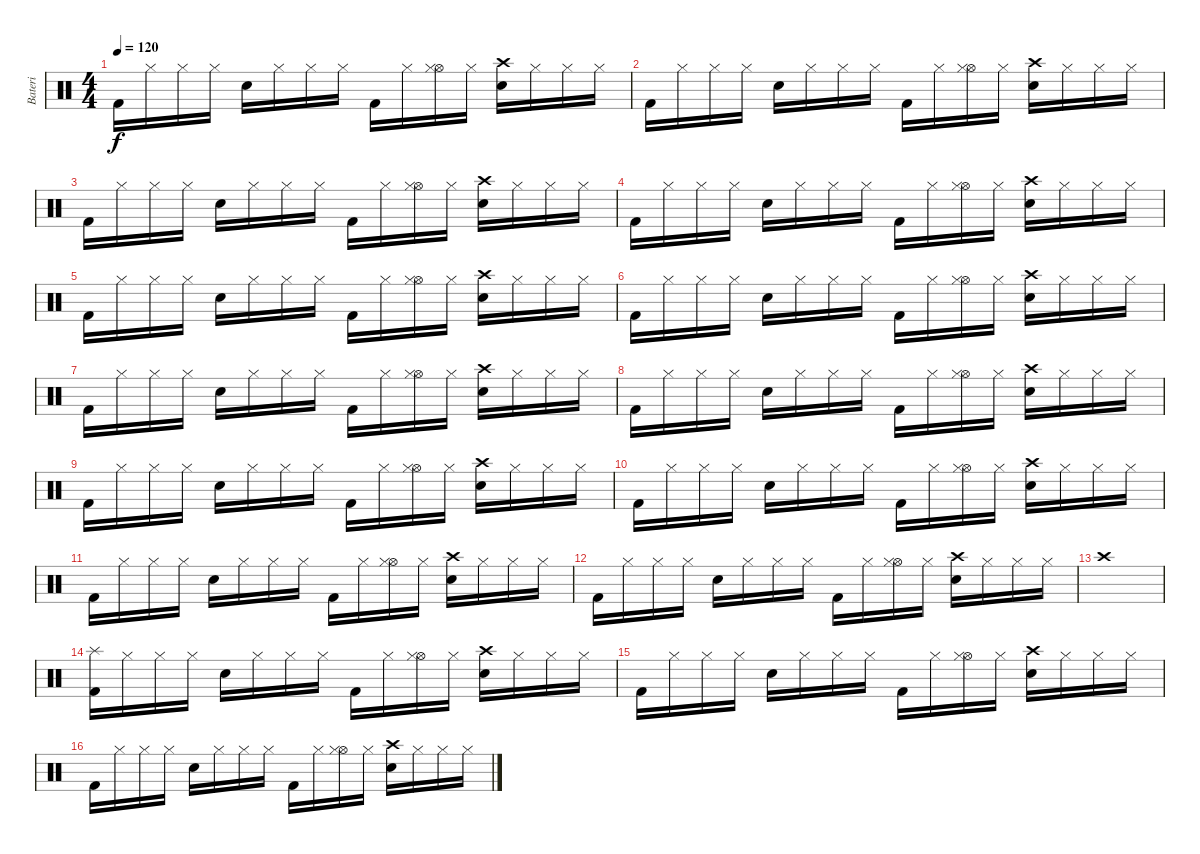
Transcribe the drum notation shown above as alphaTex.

\track ("Bateri" "Bateri") {instrument percussion}
\staff {score}
\articulation defaults
\ts (4 4)
\tempo 120
\clef neutral
\ks c "Kick (hit) 2".16{dy f} "Hi-Hat (closed)".16 "Hi-Hat (closed)".16 "Hi-Hat (closed)".16 "Electric Snare (hit)".16 "Hi-Hat (closed)".16 "Hi-Hat (closed)".16 "Hi-Hat (closed)".16 "Kick (hit) 2".16 "Hi-Hat (closed)".16
("Hi-Hat (open)" "Hi-Hat (closed)").16 "Hi-Hat (closed)".16 ("Crash high (hit)" "Electric Snare (hit)").16 "Hi-Hat (closed)".16 "Hi-Hat (closed)".16 "Hi-Hat (closed)".16 |
"Kick (hit) 2".16 "Hi-Hat (closed)".16 "Hi-Hat (closed)".16 "Hi-Hat (closed)".16 "Electric Snare (hit)".16 "Hi-Hat (closed)".16 "Hi-Hat (closed)".16 "Hi-Hat (closed)".16 "Kick (hit) 2".16 "Hi-Hat (closed)".16 ("Hi-Hat (open)" "Hi-Hat (closed)").16 "Hi-Hat (closed)".16 ("Crash high (hit)" "Electric Snare (hit)").16 "Hi-Hat (closed)".16 "Hi-Hat (closed)".16 "Hi-Hat (closed)".16 |
"Kick (hit) 2".16 "Hi-Hat (closed)".16 "Hi-Hat (closed)".16 "Hi-Hat (closed)".16 "Electric Snare (hit)".16 "Hi-Hat (closed)".16 "Hi-Hat (closed)".16 "Hi-Hat (closed)".16 "Kick (hit) 2".16 "Hi-Hat (closed)".16 ("Hi-Hat (open)" "Hi-Hat (closed)").16 "Hi-Hat (closed)".16 ("Crash high (hit)" "Electric Snare (hit)").16 "Hi-Hat (closed)".16 "Hi-Hat (closed)".16 "Hi-Hat (closed)".16 |
"Kick (hit) 2".16 "Hi-Hat (closed)".16 "Hi-Hat (closed)".16 "Hi-Hat (closed)".16 "Electric Snare (hit)".16 "Hi-Hat (closed)".16 "Hi-Hat (closed)".16 "Hi-Hat (closed)".16 "Kick (hit) 2".16 "Hi-Hat (closed)".16 ("Hi-Hat (open)" "Hi-Hat (closed)").16 "Hi-Hat (closed)".16 ("Crash high (hit)" "Electric Snare (hit)").16 "Hi-Hat (closed)".16 "Hi-Hat (closed)".16 "Hi-Hat (closed)".16 |
"Kick (hit) 2".16 "Hi-Hat (closed)".16 "Hi-Hat (closed)".16 "Hi-Hat (closed)".16 "Electric Snare (hit)".16 "Hi-Hat (closed)".16 "Hi-Hat (closed)".16 "Hi-Hat (closed)".16 "Kick (hit) 2".16 "Hi-Hat (closed)".16 ("Hi-Hat (open)" "Hi-Hat (closed)").16 "Hi-Hat (closed)".16 ("Crash high (hit)" "Electric Snare (hit)").16 "Hi-Hat (closed)".16 "Hi-Hat (closed)".16 "Hi-Hat (closed)".16 |
"Kick (hit) 2".16 "Hi-Hat (closed)".16 "Hi-Hat (closed)".16 "Hi-Hat (closed)".16 "Electric Snare (hit)".16 "Hi-Hat (closed)".16 "Hi-Hat (closed)".16 "Hi-Hat (closed)".16 "Kick (hit) 2".16 "Hi-Hat (closed)".16 ("Hi-Hat (open)" "Hi-Hat (closed)").16 "Hi-Hat (closed)".16 ("Crash high (hit)" "Electric Snare (hit)").16 "Hi-Hat (closed)".16 "Hi-Hat (closed)".16 "Hi-Hat (closed)".16 |
"Kick (hit) 2".16 "Hi-Hat (closed)".16 "Hi-Hat (closed)".16 "Hi-Hat (closed)".16 "Electric Snare (hit)".16 "Hi-Hat (closed)".16 "Hi-Hat (closed)".16 "Hi-Hat (closed)".16 "Kick (hit) 2".16 "Hi-Hat (closed)".16 ("Hi-Hat (open)" "Hi-Hat (closed)").16 "Hi-Hat (closed)".16 ("Crash high (hit)" "Electric Snare (hit)").16 "Hi-Hat (closed)".16 "Hi-Hat (closed)".16 "Hi-Hat (closed)".16 |
"Kick (hit) 2".16 "Hi-Hat (closed)".16 "Hi-Hat (closed)".16 "Hi-Hat (closed)".16 "Electric Snare (hit)".16 "Hi-Hat (closed)".16 "Hi-Hat (closed)".16 "Hi-Hat (closed)".16 "Kick (hit) 2".16 "Hi-Hat (closed)".16 ("Hi-Hat (open)" "Hi-Hat (closed)").16 "Hi-Hat (closed)".16 ("Crash high (hit)" "Electric Snare (hit)").16 "Hi-Hat (closed)".16 "Hi-Hat (closed)".16 "Hi-Hat (closed)".16 |
"Kick (hit) 2".16 "Hi-Hat (closed)".16 "Hi-Hat (closed)".16 "Hi-Hat (closed)".16 "Electric Snare (hit)".16 "Hi-Hat (closed)".16 "Hi-Hat (closed)".16 "Hi-Hat (closed)".16 "Kick (hit) 2".16 "Hi-Hat (closed)".16 ("Hi-Hat (open)" "Hi-Hat (closed)").16 "Hi-Hat (closed)".16 ("Crash high (hit)" "Electric Snare (hit)").16 "Hi-Hat (closed)".16 "Hi-Hat (closed)".16 "Hi-Hat (closed)".16 |
"Kick (hit) 2".16 "Hi-Hat (closed)".16 "Hi-Hat (closed)".16 "Hi-Hat (closed)".16 "Electric Snare (hit)".16 "Hi-Hat (closed)".16 "Hi-Hat (closed)".16 "Hi-Hat (closed)".16 "Kick (hit) 2".16 "Hi-Hat (closed)".16 ("Hi-Hat (open)" "Hi-Hat (closed)").16 "Hi-Hat (closed)".16 ("Crash high (hit)" "Electric Snare (hit)").16 "Hi-Hat (closed)".16 "Hi-Hat (closed)".16 "Hi-Hat (closed)".16 |
"Kick (hit) 2".16 "Hi-Hat (closed)".16 "Hi-Hat (closed)".16 "Hi-Hat (closed)".16 "Electric Snare (hit)".16 "Hi-Hat (closed)".16 "Hi-Hat (closed)".16 "Hi-Hat (closed)".16 "Kick (hit) 2".16 "Hi-Hat (closed)".16 ("Hi-Hat (open)" "Hi-Hat (closed)").16 "Hi-Hat (closed)".16 ("Crash high (hit)" "Electric Snare (hit)").16 "Hi-Hat (closed)".16 "Hi-Hat (closed)".16 "Hi-Hat (closed)".16 |
"Kick (hit) 2".16 "Hi-Hat (closed)".16 "Hi-Hat (closed)".16 "Hi-Hat (closed)".16 "Electric Snare (hit)".16 "Hi-Hat (closed)".16 "Hi-Hat (closed)".16 "Hi-Hat (closed)".16 "Kick (hit) 2".16 "Hi-Hat (closed)".16 ("Hi-Hat (open)" "Hi-Hat (closed)").16 "Hi-Hat (closed)".16 ("Crash high (hit)" "Electric Snare (hit)").16 "Hi-Hat (closed)".16 "Hi-Hat (closed)".16 "Hi-Hat (closed)".16 |
"Crash high (hit)".1 |
("Splash (hit)" "Kick (hit) 2").16 "Hi-Hat (closed)".16 "Hi-Hat (closed)".16 "Hi-Hat (closed)".16 "Electric Snare (hit)".16 "Hi-Hat (closed)".16 "Hi-Hat (closed)".16 "Hi-Hat (closed)".16 "Kick (hit) 2".16 "Hi-Hat (closed)".16 ("Hi-Hat (open)" "Hi-Hat (closed)").16 "Hi-Hat (closed)".16 ("Crash high (hit)" "Electric Snare (hit)").16 "Hi-Hat (closed)".16 "Hi-Hat (closed)".16 "Hi-Hat (closed)".16 |
"Kick (hit) 2".16 "Hi-Hat (closed)".16 "Hi-Hat (closed)".16 "Hi-Hat (closed)".16 "Electric Snare (hit)".16 "Hi-Hat (closed)".16 "Hi-Hat (closed)".16 "Hi-Hat (closed)".16 "Kick (hit) 2".16 "Hi-Hat (closed)".16 ("Hi-Hat (open)" "Hi-Hat (closed)").16 "Hi-Hat (closed)".16 ("Crash high (hit)" "Electric Snare (hit)").16 "Hi-Hat (closed)".16 "Hi-Hat (closed)".16 "Hi-Hat (closed)".16 |
"Kick (hit) 2".16 "Hi-Hat (closed)".16 "Hi-Hat (closed)".16 "Hi-Hat (closed)".16 "Electric Snare (hit)".16 "Hi-Hat (closed)".16 "Hi-Hat (closed)".16 "Hi-Hat (closed)".16 "Kick (hit) 2".16 "Hi-Hat (closed)".16 ("Hi-Hat (open)" "Hi-Hat (closed)").16 "Hi-Hat (closed)".16 ("Crash high (hit)" "Electric Snare (hit)").16 "Hi-Hat (closed)".16 "Hi-Hat (closed)".16 "Hi-Hat (closed)".16
